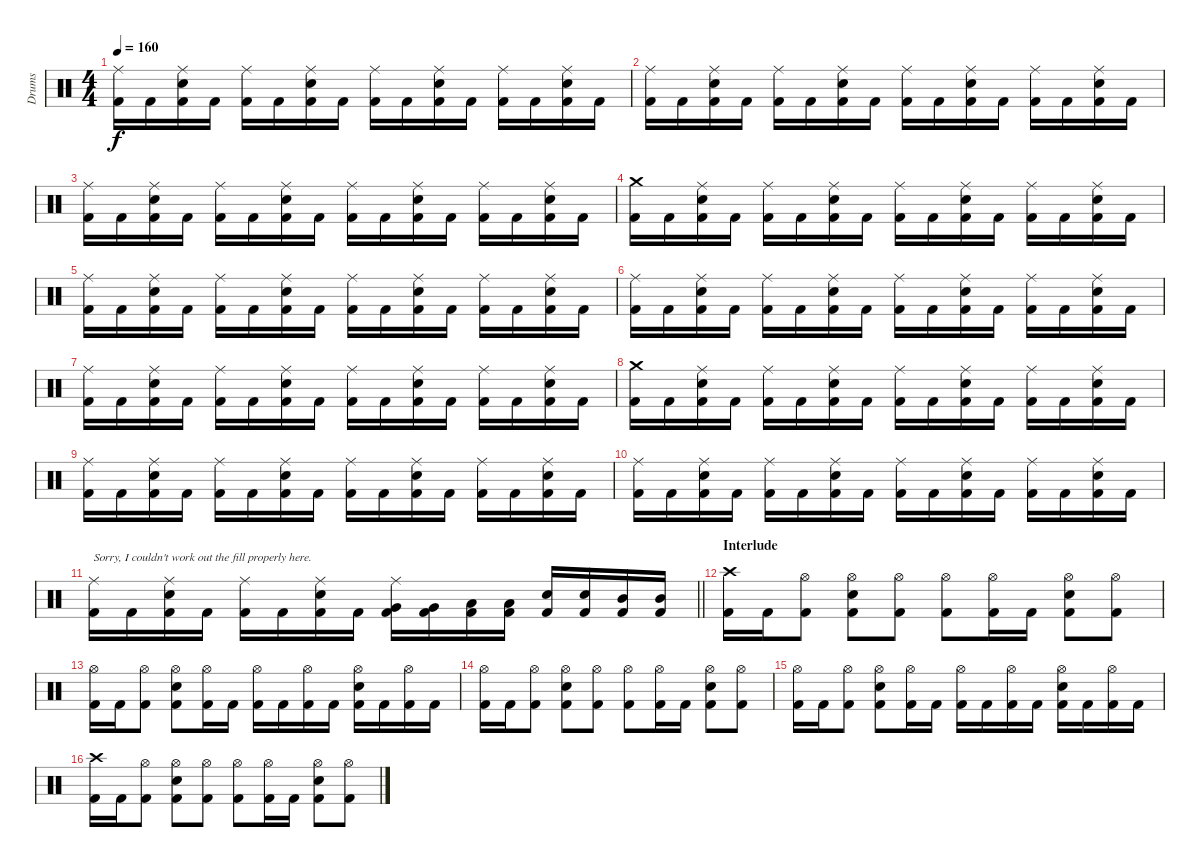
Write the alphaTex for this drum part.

\track ("Drums" "Drums") {instrument percussion}
\staff {score}
\articulation defaults
\ts (4 4)
\tempo 160
\clef neutral
\ks c
("Ride (middle)" "Kick (hit) 2").16{dy f} "Kick (hit) 2".16 ("Ride (middle)" "Snare (hit) 2" "Kick (hit) 2").16 "Kick (hit) 2".16 ("Ride (middle)" "Kick (hit) 2").16 "Kick (hit) 2".16 ("Ride (middle)" "Snare (hit) 2" "Kick (hit) 2").16 "Kick (hit) 2".16 ("Ride (middle)" "Kick (hit) 2").16 "Kick (hit) 2".16 ("Ride (middle)" "Snare (hit) 2" "Kick (hit) 2").16 "Kick (hit) 2".16 ("Ride (middle)" "Kick (hit) 2").16 "Kick (hit) 2".16 ("Ride (middle)" "Snare (hit) 2" "Kick (hit) 2").16 "Kick (hit) 2".16 |
("Ride (middle)" "Kick (hit) 2").16 "Kick (hit) 2".16 ("Ride (middle)" "Snare (hit) 2" "Kick (hit) 2").16 "Kick (hit) 2".16 ("Ride (middle)" "Kick (hit) 2").16 "Kick (hit) 2".16 ("Ride (middle)" "Snare (hit) 2" "Kick (hit) 2").16 "Kick (hit) 2".16 ("Ride (middle)" "Kick (hit) 2").16 "Kick (hit) 2".16 ("Ride (middle)" "Snare (hit) 2" "Kick (hit) 2").16 "Kick (hit) 2".16 ("Ride (middle)" "Kick (hit) 2").16 "Kick (hit) 2".16 ("Ride (middle)" "Snare (hit) 2" "Kick (hit) 2").16 "Kick (hit) 2".16 |
("Ride (middle)" "Kick (hit) 2").16 "Kick (hit) 2".16 ("Ride (middle)" "Snare (hit) 2" "Kick (hit) 2").16 "Kick (hit) 2".16 ("Ride (middle)" "Kick (hit) 2").16 "Kick (hit) 2".16 ("Ride (middle)" "Snare (hit) 2" "Kick (hit) 2").16 "Kick (hit) 2".16 ("Ride (middle)" "Kick (hit) 2").16 "Kick (hit) 2".16 ("Ride (middle)" "Snare (hit) 2" "Kick (hit) 2").16 "Kick (hit) 2".16 ("Ride (middle)" "Kick (hit) 2").16 "Kick (hit) 2".16 ("Ride (middle)" "Snare (hit) 2" "Kick (hit) 2").16 "Kick (hit) 2".16 |
("Crash medium (hit)" "Kick (hit) 2").16 "Kick (hit) 2".16 ("Ride (middle)" "Snare (hit) 2" "Kick (hit) 2").16 "Kick (hit) 2".16 ("Ride (middle)" "Kick (hit) 2").16 "Kick (hit) 2".16 ("Ride (middle)" "Snare (hit) 2" "Kick (hit) 2").16 "Kick (hit) 2".16 ("Ride (middle)" "Kick (hit) 2").16 "Kick (hit) 2".16 ("Ride (middle)" "Snare (hit) 2" "Kick (hit) 2").16 "Kick (hit) 2".16 ("Ride (middle)" "Kick (hit) 2").16 "Kick (hit) 2".16 ("Ride (middle)" "Snare (hit) 2" "Kick (hit) 2").16 "Kick (hit) 2".16 |
("Ride (middle)" "Kick (hit) 2").16 "Kick (hit) 2".16 ("Ride (middle)" "Snare (hit) 2" "Kick (hit) 2").16 "Kick (hit) 2".16 ("Ride (middle)" "Kick (hit) 2").16 "Kick (hit) 2".16 ("Ride (middle)" "Snare (hit) 2" "Kick (hit) 2").16 "Kick (hit) 2".16 ("Ride (middle)" "Kick (hit) 2").16 "Kick (hit) 2".16 ("Ride (middle)" "Snare (hit) 2" "Kick (hit) 2").16 "Kick (hit) 2".16 ("Ride (middle)" "Kick (hit) 2").16 "Kick (hit) 2".16 ("Ride (middle)" "Snare (hit) 2" "Kick (hit) 2").16 "Kick (hit) 2".16 |
("Ride (middle)" "Kick (hit) 2").16 "Kick (hit) 2".16 ("Ride (middle)" "Snare (hit) 2" "Kick (hit) 2").16 "Kick (hit) 2".16 ("Ride (middle)" "Kick (hit) 2").16 "Kick (hit) 2".16 ("Ride (middle)" "Snare (hit) 2" "Kick (hit) 2").16 "Kick (hit) 2".16 ("Ride (middle)" "Kick (hit) 2").16 "Kick (hit) 2".16 ("Ride (middle)" "Snare (hit) 2" "Kick (hit) 2").16 "Kick (hit) 2".16 ("Ride (middle)" "Kick (hit) 2").16 "Kick (hit) 2".16 ("Ride (middle)" "Snare (hit) 2" "Kick (hit) 2").16 "Kick (hit) 2".16 |
("Ride (middle)" "Kick (hit) 2").16 "Kick (hit) 2".16 ("Ride (middle)" "Snare (hit) 2" "Kick (hit) 2").16 "Kick (hit) 2".16 ("Ride (middle)" "Kick (hit) 2").16 "Kick (hit) 2".16 ("Ride (middle)" "Snare (hit) 2" "Kick (hit) 2").16 "Kick (hit) 2".16 ("Ride (middle)" "Kick (hit) 2").16 "Kick (hit) 2".16 ("Ride (middle)" "Snare (hit) 2" "Kick (hit) 2").16 "Kick (hit) 2".16 ("Ride (middle)" "Kick (hit) 2").16 "Kick (hit) 2".16 ("Ride (middle)" "Snare (hit) 2" "Kick (hit) 2").16 "Kick (hit) 2".16 |
("Crash medium (hit)" "Kick (hit) 2").16 "Kick (hit) 2".16 ("Ride (middle)" "Snare (hit) 2" "Kick (hit) 2").16 "Kick (hit) 2".16 ("Ride (middle)" "Kick (hit) 2").16 "Kick (hit) 2".16 ("Ride (middle)" "Snare (hit) 2" "Kick (hit) 2").16 "Kick (hit) 2".16 ("Ride (middle)" "Kick (hit) 2").16 "Kick (hit) 2".16 ("Ride (middle)" "Snare (hit) 2" "Kick (hit) 2").16 "Kick (hit) 2".16 ("Ride (middle)" "Kick (hit) 2").16 "Kick (hit) 2".16 ("Ride (middle)" "Snare (hit) 2" "Kick (hit) 2").16 "Kick (hit) 2".16 |
("Ride (middle)" "Kick (hit) 2").16 "Kick (hit) 2".16 ("Ride (middle)" "Snare (hit) 2" "Kick (hit) 2").16 "Kick (hit) 2".16 ("Ride (middle)" "Kick (hit) 2").16 "Kick (hit) 2".16 ("Ride (middle)" "Snare (hit) 2" "Kick (hit) 2").16 "Kick (hit) 2".16 ("Ride (middle)" "Kick (hit) 2").16 "Kick (hit) 2".16 ("Ride (middle)" "Snare (hit) 2" "Kick (hit) 2").16 "Kick (hit) 2".16 ("Ride (middle)" "Kick (hit) 2").16 "Kick (hit) 2".16 ("Ride (middle)" "Snare (hit) 2" "Kick (hit) 2").16 "Kick (hit) 2".16 |
("Ride (middle)" "Kick (hit) 2").16 "Kick (hit) 2".16 ("Ride (middle)" "Snare (hit) 2" "Kick (hit) 2").16 "Kick (hit) 2".16 ("Ride (middle)" "Kick (hit) 2").16 "Kick (hit) 2".16 ("Ride (middle)" "Snare (hit) 2" "Kick (hit) 2").16 "Kick (hit) 2".16 ("Ride (middle)" "Kick (hit) 2").16 "Kick (hit) 2".16 ("Ride (middle)" "Snare (hit) 2" "Kick (hit) 2").16 "Kick (hit) 2".16 ("Ride (middle)" "Kick (hit) 2").16 "Kick (hit) 2".16 ("Ride (middle)" "Snare (hit) 2" "Kick (hit) 2").16 "Kick (hit) 2".16 |
\barLineRight lightlight
("Ride (middle)" "Kick (hit) 2").16{txt "Sorry, I couldn't work out the fill properly here."} "Kick (hit) 2".16 ("Ride (middle)" "Snare (hit) 2" "Kick (hit) 2").16 "Kick (hit) 2".16 ("Ride (middle)" "Kick (hit) 2").16 "Kick (hit) 2".16 ("Ride (middle)" "Snare (hit) 2" "Kick (hit) 2").16 "Kick (hit) 2".16 ("Ride (middle)" "Very Low Tom (hit)" "Kick (hit) 2").16 ("Very Low Tom (hit)" "Kick (hit) 2").16 ("Low Tom (hit)" "Kick (hit) 2").16 ("Low Tom (hit)" "Kick (hit) 2").16 ("Snare (hit) 2" "Kick (hit) 2").16 ("Snare (hit) 2" "Kick (hit) 2").16 ("Mid Tom (hit)" "Kick (hit) 2").16 ("Mid Tom (hit)" "Kick (hit) 2").16 |
\section ("" "Interlude")
("Crash high (hit)" "Kick (hit) 2").16 "Kick (hit) 2".16 ("Hi-Hat (open)" "Kick (hit) 2").8 ("Hi-Hat (open)" "Snare (hit) 2" "Kick (hit) 2").8 ("Hi-Hat (open)" "Kick (hit) 2").8 ("Hi-Hat (open)" "Kick (hit) 2").8 ("Hi-Hat (open)" "Kick (hit) 2").16 "Kick (hit) 2".16 ("Hi-Hat (open)" "Snare (hit) 2" "Kick (hit) 2").8 ("Hi-Hat (open)" "Kick (hit) 2").8 |
("Hi-Hat (open)" "Kick (hit) 2").16 "Kick (hit) 2".16 ("Hi-Hat (open)" "Kick (hit) 2").8 ("Hi-Hat (open)" "Snare (hit) 2" "Kick (hit) 2").8 ("Hi-Hat (open)" "Kick (hit) 2").16 "Kick (hit) 2".16 ("Hi-Hat (open)" "Kick (hit) 2").16 "Kick (hit) 2".16 ("Hi-Hat (open)" "Kick (hit) 2").16 "Kick (hit) 2".16 ("Hi-Hat (open)" "Snare (hit) 2" "Kick (hit) 2").16 "Kick (hit) 2".16 ("Hi-Hat (open)" "Kick (hit) 2").16 "Kick (hit) 2".16 |
("Hi-Hat (open)" "Kick (hit) 2").16 "Kick (hit) 2".16 ("Hi-Hat (open)" "Kick (hit) 2").8 ("Hi-Hat (open)" "Snare (hit) 2" "Kick (hit) 2").8 ("Hi-Hat (open)" "Kick (hit) 2").8 ("Hi-Hat (open)" "Kick (hit) 2").8 ("Hi-Hat (open)" "Kick (hit) 2").16 "Kick (hit) 2".16 ("Hi-Hat (open)" "Snare (hit) 2" "Kick (hit) 2").8 ("Hi-Hat (open)" "Kick (hit) 2").8 |
("Hi-Hat (open)" "Kick (hit) 2").16 "Kick (hit) 2".16 ("Hi-Hat (open)" "Kick (hit) 2").8 ("Hi-Hat (open)" "Snare (hit) 2" "Kick (hit) 2").8 ("Hi-Hat (open)" "Kick (hit) 2").16 "Kick (hit) 2".16 ("Hi-Hat (open)" "Kick (hit) 2").16 "Kick (hit) 2".16 ("Hi-Hat (open)" "Kick (hit) 2").16 "Kick (hit) 2".16 ("Hi-Hat (open)" "Snare (hit) 2" "Kick (hit) 2").16 "Kick (hit) 2".16 ("Hi-Hat (open)" "Kick (hit) 2").16 "Kick (hit) 2".16 |
("Crash high (hit)" "Kick (hit) 2").16 "Kick (hit) 2".16 ("Hi-Hat (open)" "Kick (hit) 2").8 ("Hi-Hat (open)" "Snare (hit) 2" "Kick (hit) 2").8 ("Hi-Hat (open)" "Kick (hit) 2").8 ("Hi-Hat (open)" "Kick (hit) 2").8 ("Hi-Hat (open)" "Kick (hit) 2").16 "Kick (hit) 2".16 ("Hi-Hat (open)" "Snare (hit) 2" "Kick (hit) 2").8 ("Hi-Hat (open)" "Kick (hit) 2").8
